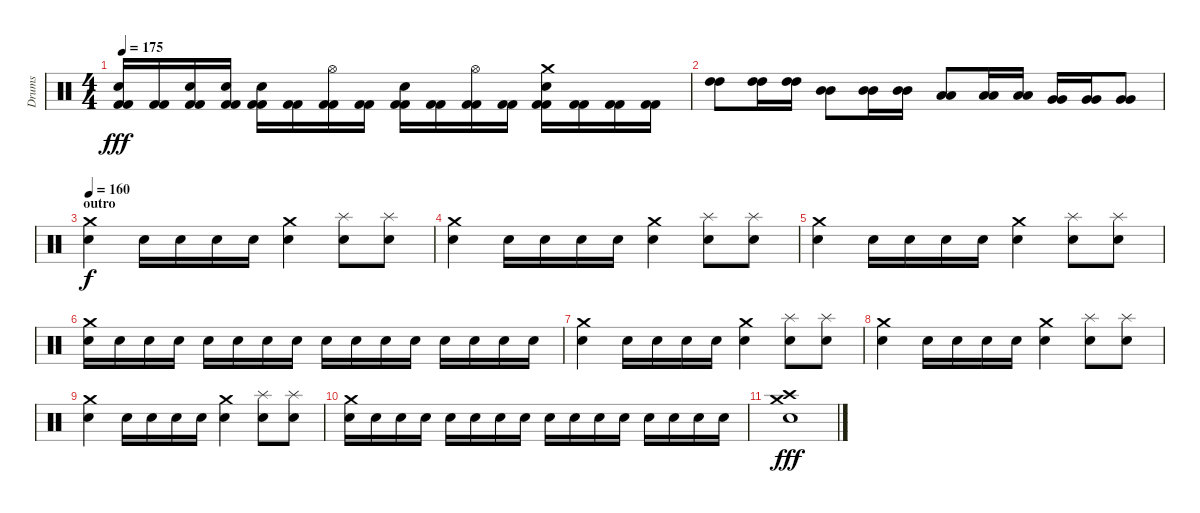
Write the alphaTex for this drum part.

\track ("Drums" "Drums") {instrument percussion}
\staff {score}
\articulation defaults
\ts (4 4)
\tempo 175
\clef neutral
\ks c
("Electric Snare (hit)" "Kick (hit) 2" "Kick (hit) 2").16{dy fff} ("Kick (hit) 2" "Kick (hit) 2").16 ("Electric Snare (hit)" "Kick (hit) 2" "Kick (hit) 2").16 ("Electric Snare (hit)" "Kick (hit) 2" "Kick (hit) 2").16 ("Electric Snare (hit)" "Kick (hit) 2" "Kick (hit) 2").16 ("Kick (hit) 2" "Kick (hit) 2").16 ("Hi-Hat (open)" "Kick (hit) 2" "Kick (hit) 2").16 ("Kick (hit) 2" "Kick (hit) 2").16 ("Electric Snare (hit)" "Kick (hit) 2" "Kick (hit) 2").16 ("Kick (hit) 2" "Kick (hit) 2").16 ("Hi-Hat (open)" "Kick (hit) 2" "Kick (hit) 2").16 ("Kick (hit) 2" "Kick (hit) 2").16 ("Crash medium (hit)" "Electric Snare (hit)" "Kick (hit) 2" "Kick (hit) 2").16 ("Kick (hit) 2" "Kick (hit) 2").16 ("Kick (hit) 2" "Kick (hit) 2").16 ("Kick (hit) 2" "Kick (hit) 2").16 |
("High Tom (hit)" "High Tom (hit)").8 ("High Tom (hit)" "High Tom (hit)").16 ("High Tom (hit)" "High Tom (hit)").16 ("Mid Tom (hit)" "Mid Tom (hit)").8 ("Mid Tom (hit)" "Mid Tom (hit)").16 ("Mid Tom (hit)" "Mid Tom (hit)").16 ("Low Tom (hit)" "Low Tom (hit)").8 ("Low Tom (hit)" "Low Tom (hit)").16 ("Low Tom (hit)" "Low Tom (hit)").16 ("Very Low Tom (hit)" "Very Low Tom (hit)").16 ("Very Low Tom (hit)" "Very Low Tom (hit)").16 ("Very Low Tom (hit)" "Very Low Tom (hit)").8 |
\section ("" "outro")
\tempo 160
("Electric Snare (hit)" "Crash medium (hit)").4{dy f} "Electric Snare (hit)".16 "Electric Snare (hit)".16 "Electric Snare (hit)".16 "Electric Snare (hit)".16 ("Electric Snare (hit)" "Crash medium (hit)").4 ("Electric Snare (hit)" "Splash (hit)").8 ("Electric Snare (hit)" "Splash (hit)").8 |
("Electric Snare (hit)" "Crash medium (hit)").4 "Electric Snare (hit)".16 "Electric Snare (hit)".16 "Electric Snare (hit)".16 "Electric Snare (hit)".16 ("Electric Snare (hit)" "Crash medium (hit)").4 ("Electric Snare (hit)" "Splash (hit)").8 ("Electric Snare (hit)" "Splash (hit)").8 |
("Electric Snare (hit)" "Crash medium (hit)").4 "Electric Snare (hit)".16 "Electric Snare (hit)".16 "Electric Snare (hit)".16 "Electric Snare (hit)".16 ("Electric Snare (hit)" "Crash medium (hit)").4 ("Electric Snare (hit)" "Splash (hit)").8 ("Electric Snare (hit)" "Splash (hit)").8 |
("Crash medium (hit)" "Electric Snare (hit)").16 "Electric Snare (hit)".16 "Electric Snare (hit)".16 "Electric Snare (hit)".16 "Electric Snare (hit)".16 "Electric Snare (hit)".16 "Electric Snare (hit)".16 "Electric Snare (hit)".16 "Electric Snare (hit)".16 "Electric Snare (hit)".16 "Electric Snare (hit)".16 "Electric Snare (hit)".16 "Electric Snare (hit)".16 "Electric Snare (hit)".16 "Electric Snare (hit)".16 "Electric Snare (hit)".16 |
("Electric Snare (hit)" "Crash medium (hit)").4 "Electric Snare (hit)".16 "Electric Snare (hit)".16 "Electric Snare (hit)".16 "Electric Snare (hit)".16 ("Electric Snare (hit)" "Crash medium (hit)").4 ("Electric Snare (hit)" "Splash (hit)").8 ("Electric Snare (hit)" "Splash (hit)").8 |
("Electric Snare (hit)" "Crash medium (hit)").4 "Electric Snare (hit)".16 "Electric Snare (hit)".16 "Electric Snare (hit)".16 "Electric Snare (hit)".16 ("Electric Snare (hit)" "Crash medium (hit)").4 ("Electric Snare (hit)" "Splash (hit)").8 ("Electric Snare (hit)" "Splash (hit)").8 |
("Electric Snare (hit)" "Crash medium (hit)").4 "Electric Snare (hit)".16 "Electric Snare (hit)".16 "Electric Snare (hit)".16 "Electric Snare (hit)".16 ("Electric Snare (hit)" "Crash medium (hit)").4 ("Electric Snare (hit)" "Splash (hit)").8 ("Electric Snare (hit)" "Splash (hit)").8 |
("Crash medium (hit)" "Electric Snare (hit)").16 "Electric Snare (hit)".16 "Electric Snare (hit)".16 "Electric Snare (hit)".16 "Electric Snare (hit)".16 "Electric Snare (hit)".16 "Electric Snare (hit)".16 "Electric Snare (hit)".16 "Electric Snare (hit)".16 "Electric Snare (hit)".16 "Electric Snare (hit)".16 "Electric Snare (hit)".16 "Electric Snare (hit)".16 "Electric Snare (hit)".16 "Electric Snare (hit)".16 "Electric Snare (hit)".16 |
("Crash high (hit)" "Electric Snare (hit)" "Crash medium (hit)").1{dy fff}
